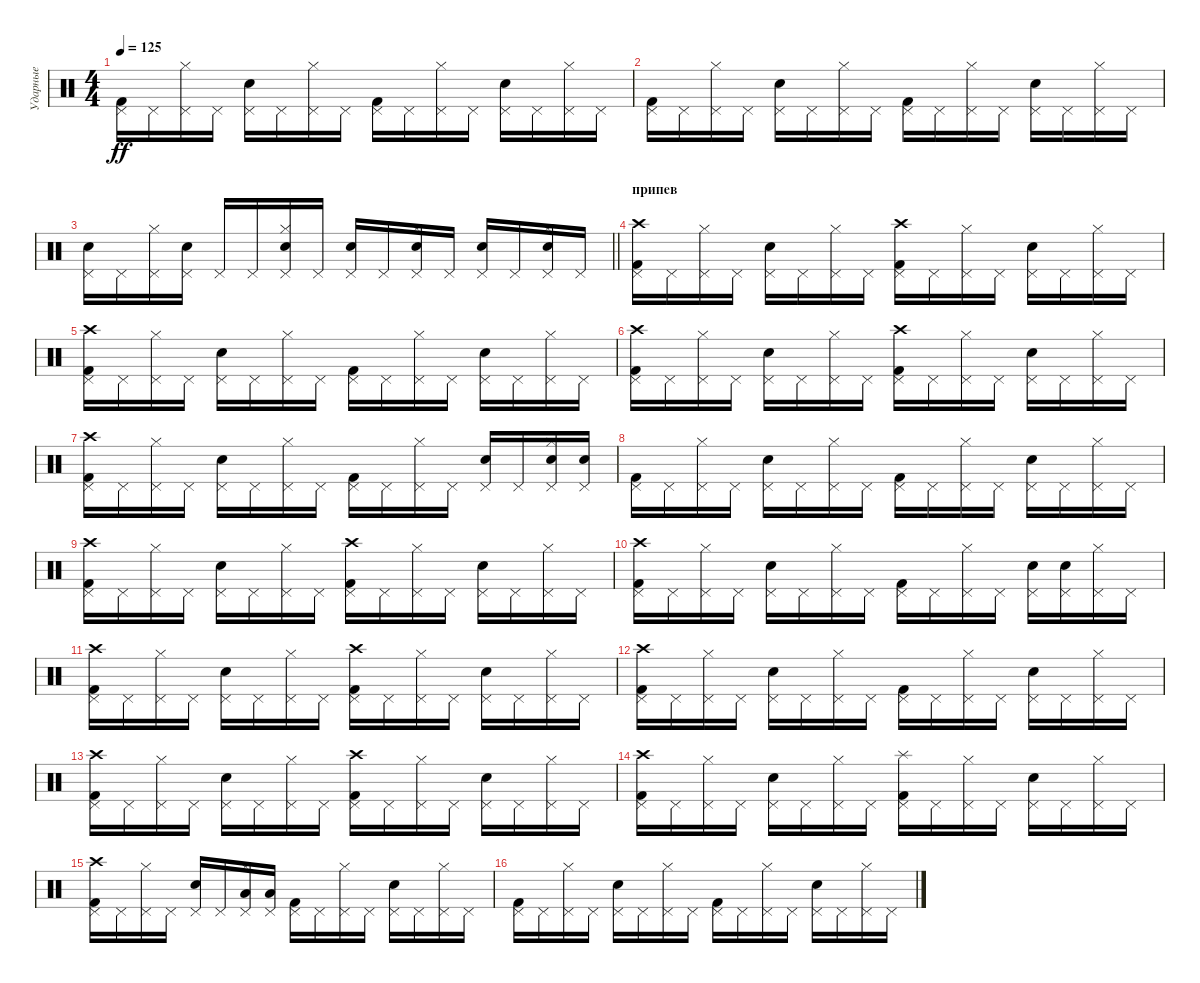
\track ("Ударные" "Ударные") {instrument percussion}
\staff {score}
\articulation defaults
\ts (4 4)
\tempo 125
\clef neutral
\ks c
("Kick (hit) 2" "Pedal Hi-Hat (hit)").16{dy ff} "Pedal Hi-Hat (hit)".16 ("Hi-Hat (closed)" "Pedal Hi-Hat (hit)").16 "Pedal Hi-Hat (hit)".16 ("Snare (hit) 2" "Pedal Hi-Hat (hit)").16 "Pedal Hi-Hat (hit)".16 ("Hi-Hat (closed)" "Pedal Hi-Hat (hit)").16 "Pedal Hi-Hat (hit)".16 ("Kick (hit) 2" "Pedal Hi-Hat (hit)").16 "Pedal Hi-Hat (hit)".16 ("Hi-Hat (closed)" "Pedal Hi-Hat (hit)").16 "Pedal Hi-Hat (hit)".16 ("Snare (hit) 2" "Pedal Hi-Hat (hit)").16 "Pedal Hi-Hat (hit)".16 ("Hi-Hat (closed)" "Pedal Hi-Hat (hit)").16 "Pedal Hi-Hat (hit)".16 |
("Kick (hit) 2" "Pedal Hi-Hat (hit)").16 "Pedal Hi-Hat (hit)".16 ("Hi-Hat (closed)" "Pedal Hi-Hat (hit)").16 "Pedal Hi-Hat (hit)".16 ("Snare (hit) 2" "Pedal Hi-Hat (hit)").16 "Pedal Hi-Hat (hit)".16 ("Hi-Hat (closed)" "Pedal Hi-Hat (hit)").16 "Pedal Hi-Hat (hit)".16 ("Kick (hit) 2" "Pedal Hi-Hat (hit)").16 "Pedal Hi-Hat (hit)".16 ("Hi-Hat (closed)" "Pedal Hi-Hat (hit)").16 "Pedal Hi-Hat (hit)".16 ("Snare (hit) 2" "Pedal Hi-Hat (hit)").16 "Pedal Hi-Hat (hit)".16 ("Hi-Hat (closed)" "Pedal Hi-Hat (hit)").16 "Pedal Hi-Hat (hit)".16 |
\barLineRight lightlight
("Snare (hit) 2" "Pedal Hi-Hat (hit)").16 "Pedal Hi-Hat (hit)".16 ("Hi-Hat (closed)" "Pedal Hi-Hat (hit)").16 ("Snare (hit) 2" "Pedal Hi-Hat (hit)").16 "Pedal Hi-Hat (hit)".16 "Pedal Hi-Hat (hit)".16 ("Hi-Hat (closed)" "Snare (hit) 2" "Pedal Hi-Hat (hit)").16 "Pedal Hi-Hat (hit)".16 ("Snare (hit) 2" "Pedal Hi-Hat (hit)").16 "Pedal Hi-Hat (hit)".16 ("Hi-Hat (closed)" "Snare (hit) 2" "Pedal Hi-Hat (hit)").16 "Pedal Hi-Hat (hit)".16 ("Snare (hit) 2" "Pedal Hi-Hat (hit)").16 "Pedal Hi-Hat (hit)".16 ("Hi-Hat (closed)" "Snare (hit) 2" "Pedal Hi-Hat (hit)").16 "Pedal Hi-Hat (hit)".16 |
\section ("" "припев")
("Crash high (hit)" "Kick (hit) 2" "Pedal Hi-Hat (hit)").16 "Pedal Hi-Hat (hit)".16 ("Hi-Hat (closed)" "Pedal Hi-Hat (hit)").16 "Pedal Hi-Hat (hit)".16 ("Snare (hit) 2" "Pedal Hi-Hat (hit)").16 "Pedal Hi-Hat (hit)".16 ("Hi-Hat (closed)" "Pedal Hi-Hat (hit)").16 "Pedal Hi-Hat (hit)".16 ("Crash high (hit)" "Kick (hit) 2" "Pedal Hi-Hat (hit)").16 "Pedal Hi-Hat (hit)".16 ("Hi-Hat (closed)" "Pedal Hi-Hat (hit)").16 "Pedal Hi-Hat (hit)".16 ("Snare (hit) 2" "Pedal Hi-Hat (hit)").16 "Pedal Hi-Hat (hit)".16 ("Hi-Hat (closed)" "Pedal Hi-Hat (hit)").16 "Pedal Hi-Hat (hit)".16 |
("Crash high (hit)" "Kick (hit) 2" "Pedal Hi-Hat (hit)").16 "Pedal Hi-Hat (hit)".16 ("Hi-Hat (closed)" "Pedal Hi-Hat (hit)").16 "Pedal Hi-Hat (hit)".16 ("Snare (hit) 2" "Pedal Hi-Hat (hit)").16 "Pedal Hi-Hat (hit)".16 ("Hi-Hat (closed)" "Pedal Hi-Hat (hit)").16 "Pedal Hi-Hat (hit)".16 ("Kick (hit) 2" "Pedal Hi-Hat (hit)").16 "Pedal Hi-Hat (hit)".16 ("Hi-Hat (closed)" "Pedal Hi-Hat (hit)").16 "Pedal Hi-Hat (hit)".16 ("Snare (hit) 2" "Pedal Hi-Hat (hit)").16 "Pedal Hi-Hat (hit)".16 ("Hi-Hat (closed)" "Pedal Hi-Hat (hit)").16 "Pedal Hi-Hat (hit)".16 |
("Crash high (hit)" "Kick (hit) 2" "Pedal Hi-Hat (hit)").16 "Pedal Hi-Hat (hit)".16 ("Hi-Hat (closed)" "Pedal Hi-Hat (hit)").16 "Pedal Hi-Hat (hit)".16 ("Snare (hit) 2" "Pedal Hi-Hat (hit)").16 "Pedal Hi-Hat (hit)".16 ("Hi-Hat (closed)" "Pedal Hi-Hat (hit)").16 "Pedal Hi-Hat (hit)".16 ("Crash high (hit)" "Kick (hit) 2" "Pedal Hi-Hat (hit)").16 "Pedal Hi-Hat (hit)".16 ("Hi-Hat (closed)" "Pedal Hi-Hat (hit)").16 "Pedal Hi-Hat (hit)".16 ("Snare (hit) 2" "Pedal Hi-Hat (hit)").16 "Pedal Hi-Hat (hit)".16 ("Hi-Hat (closed)" "Pedal Hi-Hat (hit)").16 "Pedal Hi-Hat (hit)".16 |
("Crash high (hit)" "Kick (hit) 2" "Pedal Hi-Hat (hit)").16 "Pedal Hi-Hat (hit)".16 ("Hi-Hat (closed)" "Pedal Hi-Hat (hit)").16 "Pedal Hi-Hat (hit)".16 ("Snare (hit) 2" "Pedal Hi-Hat (hit)").16 "Pedal Hi-Hat (hit)".16 ("Hi-Hat (closed)" "Pedal Hi-Hat (hit)").16 "Pedal Hi-Hat (hit)".16 ("Kick (hit) 2" "Pedal Hi-Hat (hit)").16 "Pedal Hi-Hat (hit)".16 ("Hi-Hat (closed)" "Pedal Hi-Hat (hit)").16 "Pedal Hi-Hat (hit)".16 ("Snare (hit) 2" "Pedal Hi-Hat (hit)").16 "Pedal Hi-Hat (hit)".16 ("Hi-Hat (closed)" "Electric Snare (hit)" "Pedal Hi-Hat (hit)").16 ("Electric Snare (hit)" "Pedal Hi-Hat (hit)").16 |
("Kick (hit) 2" "Pedal Hi-Hat (hit)").16 "Pedal Hi-Hat (hit)".16 ("Hi-Hat (closed)" "Pedal Hi-Hat (hit)").16 "Pedal Hi-Hat (hit)".16 ("Snare (hit) 2" "Pedal Hi-Hat (hit)").16 "Pedal Hi-Hat (hit)".16 ("Hi-Hat (closed)" "Pedal Hi-Hat (hit)").16 "Pedal Hi-Hat (hit)".16 ("Kick (hit) 2" "Pedal Hi-Hat (hit)").16 "Pedal Hi-Hat (hit)".16 ("Hi-Hat (closed)" "Pedal Hi-Hat (hit)").16 "Pedal Hi-Hat (hit)".16 ("Snare (hit) 2" "Pedal Hi-Hat (hit)").16 "Pedal Hi-Hat (hit)".16 ("Hi-Hat (closed)" "Pedal Hi-Hat (hit)").16 "Pedal Hi-Hat (hit)".16 |
("Crash high (hit)" "Kick (hit) 2" "Pedal Hi-Hat (hit)").16 "Pedal Hi-Hat (hit)".16 ("Hi-Hat (closed)" "Pedal Hi-Hat (hit)").16 "Pedal Hi-Hat (hit)".16 ("Snare (hit) 2" "Pedal Hi-Hat (hit)").16 "Pedal Hi-Hat (hit)".16 ("Hi-Hat (closed)" "Pedal Hi-Hat (hit)").16 "Pedal Hi-Hat (hit)".16 ("Crash high (hit)" "Kick (hit) 2" "Pedal Hi-Hat (hit)").16 "Pedal Hi-Hat (hit)".16 ("Hi-Hat (closed)" "Pedal Hi-Hat (hit)").16 "Pedal Hi-Hat (hit)".16 ("Snare (hit) 2" "Pedal Hi-Hat (hit)").16 "Pedal Hi-Hat (hit)".16 ("Hi-Hat (closed)" "Pedal Hi-Hat (hit)").16 "Pedal Hi-Hat (hit)".16 |
("Crash high (hit)" "Kick (hit) 2" "Pedal Hi-Hat (hit)").16 "Pedal Hi-Hat (hit)".16 ("Hi-Hat (closed)" "Pedal Hi-Hat (hit)").16 "Pedal Hi-Hat (hit)".16 ("Snare (hit) 2" "Pedal Hi-Hat (hit)").16 "Pedal Hi-Hat (hit)".16 ("Hi-Hat (closed)" "Pedal Hi-Hat (hit)").16 "Pedal Hi-Hat (hit)".16 ("Kick (hit) 2" "Pedal Hi-Hat (hit)").16 "Pedal Hi-Hat (hit)".16 ("Hi-Hat (closed)" "Pedal Hi-Hat (hit)").16 "Pedal Hi-Hat (hit)".16 ("Snare (hit) 2" "Pedal Hi-Hat (hit)").16 ("Snare (hit) 2" "Pedal Hi-Hat (hit)").16 ("Hi-Hat (closed)" "Pedal Hi-Hat (hit)").16 "Pedal Hi-Hat (hit)".16 |
("Crash high (hit)" "Kick (hit) 2" "Pedal Hi-Hat (hit)").16 "Pedal Hi-Hat (hit)".16 ("Hi-Hat (closed)" "Pedal Hi-Hat (hit)").16 "Pedal Hi-Hat (hit)".16 ("Snare (hit) 2" "Pedal Hi-Hat (hit)").16 "Pedal Hi-Hat (hit)".16 ("Hi-Hat (closed)" "Pedal Hi-Hat (hit)").16 "Pedal Hi-Hat (hit)".16 ("Crash high (hit)" "Kick (hit) 2" "Pedal Hi-Hat (hit)").16 "Pedal Hi-Hat (hit)".16 ("Hi-Hat (closed)" "Pedal Hi-Hat (hit)").16 "Pedal Hi-Hat (hit)".16 ("Snare (hit) 2" "Pedal Hi-Hat (hit)").16 "Pedal Hi-Hat (hit)".16 ("Hi-Hat (closed)" "Pedal Hi-Hat (hit)").16 "Pedal Hi-Hat (hit)".16 |
("Crash high (hit)" "Kick (hit) 2" "Pedal Hi-Hat (hit)").16 "Pedal Hi-Hat (hit)".16 ("Hi-Hat (closed)" "Pedal Hi-Hat (hit)").16 "Pedal Hi-Hat (hit)".16 ("Snare (hit) 2" "Pedal Hi-Hat (hit)").16 "Pedal Hi-Hat (hit)".16 ("Hi-Hat (closed)" "Pedal Hi-Hat (hit)").16 "Pedal Hi-Hat (hit)".16 ("Kick (hit) 2" "Pedal Hi-Hat (hit)").16 "Pedal Hi-Hat (hit)".16 ("Hi-Hat (closed)" "Pedal Hi-Hat (hit)").16 "Pedal Hi-Hat (hit)".16 ("Snare (hit) 2" "Pedal Hi-Hat (hit)").16 "Pedal Hi-Hat (hit)".16 ("Hi-Hat (closed)" "Pedal Hi-Hat (hit)").16 "Pedal Hi-Hat (hit)".16 |
("Crash high (hit)" "Kick (hit) 2" "Pedal Hi-Hat (hit)").16 "Pedal Hi-Hat (hit)".16 ("Hi-Hat (closed)" "Pedal Hi-Hat (hit)").16 "Pedal Hi-Hat (hit)".16 ("Snare (hit) 2" "Pedal Hi-Hat (hit)").16 "Pedal Hi-Hat (hit)".16 ("Hi-Hat (closed)" "Pedal Hi-Hat (hit)").16 "Pedal Hi-Hat (hit)".16 ("Crash high (hit)" "Kick (hit) 2" "Pedal Hi-Hat (hit)").16 "Pedal Hi-Hat (hit)".16 ("Hi-Hat (closed)" "Pedal Hi-Hat (hit)").16 "Pedal Hi-Hat (hit)".16 ("Snare (hit) 2" "Pedal Hi-Hat (hit)").16 "Pedal Hi-Hat (hit)".16 ("Hi-Hat (closed)" "Pedal Hi-Hat (hit)").16 "Pedal Hi-Hat (hit)".16 |
("Crash high (hit)" "Kick (hit) 2" "Pedal Hi-Hat (hit)").16 "Pedal Hi-Hat (hit)".16 ("Hi-Hat (closed)" "Pedal Hi-Hat (hit)").16 "Pedal Hi-Hat (hit)".16 ("Snare (hit) 2" "Pedal Hi-Hat (hit)").16 "Pedal Hi-Hat (hit)".16 ("Hi-Hat (closed)" "Pedal Hi-Hat (hit)").16 "Pedal Hi-Hat (hit)".16 ("Splash (hit)" "Kick (hit) 2" "Pedal Hi-Hat (hit)").16 "Pedal Hi-Hat (hit)".16 ("Hi-Hat (closed)" "Pedal Hi-Hat (hit)").16 "Pedal Hi-Hat (hit)".16 ("Snare (hit) 2" "Pedal Hi-Hat (hit)").16 "Pedal Hi-Hat (hit)".16 ("Hi-Hat (closed)" "Pedal Hi-Hat (hit)").16 "Pedal Hi-Hat (hit)".16 |
("Crash high (hit)" "Kick (hit) 2" "Pedal Hi-Hat (hit)").16 "Pedal Hi-Hat (hit)".16 ("Hi-Hat (closed)" "Pedal Hi-Hat (hit)").16 "Pedal Hi-Hat (hit)".16 ("Snare (hit) 2" "Pedal Hi-Hat (hit)").16 "Pedal Hi-Hat (hit)".16 ("Hi-Hat (closed)" "Low Tom (hit)" "Pedal Hi-Hat (hit)").16 ("Low Tom (hit)" "Pedal Hi-Hat (hit)").16 ("Kick (hit) 2" "Pedal Hi-Hat (hit)").16 "Pedal Hi-Hat (hit)".16 ("Hi-Hat (closed)" "Pedal Hi-Hat (hit)").16 "Pedal Hi-Hat (hit)".16 ("Snare (hit) 2" "Pedal Hi-Hat (hit)").16 "Pedal Hi-Hat (hit)".16 ("Hi-Hat (closed)" "Pedal Hi-Hat (hit)").16 "Pedal Hi-Hat (hit)".16 |
("Kick (hit) 2" "Pedal Hi-Hat (hit)").16 "Pedal Hi-Hat (hit)".16 ("Hi-Hat (closed)" "Pedal Hi-Hat (hit)").16 "Pedal Hi-Hat (hit)".16 ("Snare (hit) 2" "Pedal Hi-Hat (hit)").16 "Pedal Hi-Hat (hit)".16 ("Hi-Hat (closed)" "Pedal Hi-Hat (hit)").16 "Pedal Hi-Hat (hit)".16 ("Kick (hit) 2" "Pedal Hi-Hat (hit)").16 "Pedal Hi-Hat (hit)".16 ("Hi-Hat (closed)" "Pedal Hi-Hat (hit)").16 "Pedal Hi-Hat (hit)".16 ("Snare (hit) 2" "Pedal Hi-Hat (hit)").16 "Pedal Hi-Hat (hit)".16 ("Hi-Hat (closed)" "Pedal Hi-Hat (hit)").16 "Pedal Hi-Hat (hit)".16
